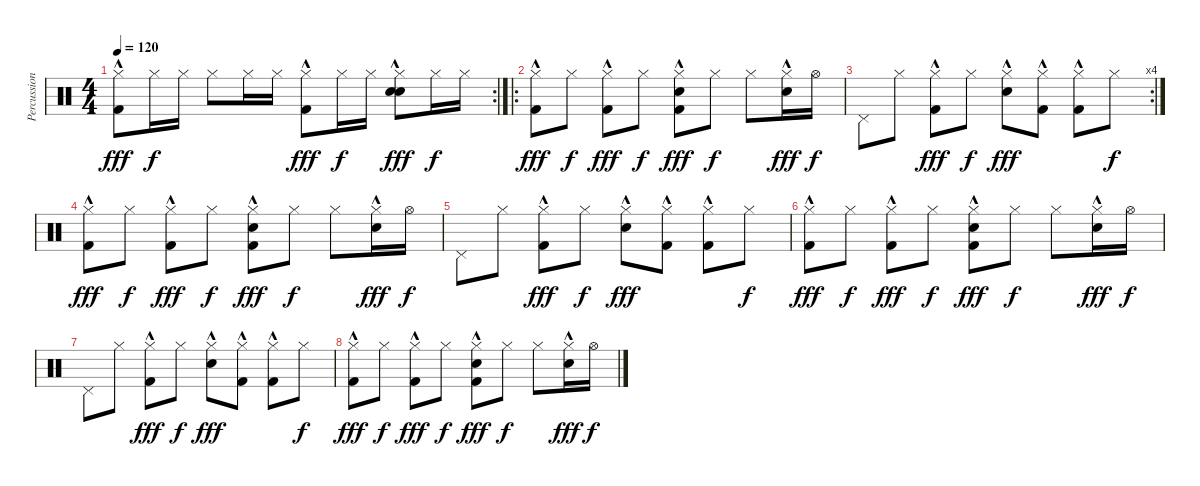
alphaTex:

\track ("Percussion" "Percussion") {mute instrument percussion}
\staff {score}
\articulation defaults
\rc 2
\ts (4 4)
\tempo 120
\clef neutral
\ks c
("Hi-Hat (closed)" "Kick (hit) 2"{hac}).8{dy fff} "Hi-Hat (closed)".16{dy f} "Hi-Hat (closed)".16 "Hi-Hat (closed)".8 "Hi-Hat (closed)".16 "Hi-Hat (closed)".16 ("Hi-Hat (closed)" "Kick (hit) 2"{hac}).8{dy fff} "Hi-Hat (closed)".16{dy f} "Hi-Hat (closed)".16 ("Hi-Hat (closed)" "Hand Clap (hit)"{hac} "Snare (hit) 2").8{dy fff} "Hi-Hat (closed)".16{dy f} "Hi-Hat (closed)".16 |
\ro
("Hi-Hat (closed)" "Kick (hit) 2"{hac}).8{dy fff} "Hi-Hat (closed)".8{dy f} ("Hi-Hat (closed)" "Kick (hit) 2"{hac}).8{dy fff} "Hi-Hat (closed)".8{dy f} ("Hi-Hat (closed)" "Snare (hit) 2"{hac} "Kick (hit) 2"{hac}).8{dy fff} "Hi-Hat (closed)".8{dy f} "Hi-Hat (closed)".8 ("Hi-Hat (closed)" "Snare (hit) 2"{hac}).16{dy fff} "Hi-Hat (open)".16{dy f} |
\rc 4 "Pedal Hi-Hat (hit)".8 "Hi-Hat (closed)".8
("Hi-Hat (closed)" "Kick (hit) 2"{hac}).8{dy fff} "Hi-Hat (closed)".8{dy f} ("Hi-Hat (closed)" "Snare (hit) 2"{hac}).8{dy fff} ("Hi-Hat (closed)" "Kick (hit) 2"{hac}).8 ("Hi-Hat (closed)" "Kick (hit) 2"{hac}).8 "Hi-Hat (closed)".8{dy f} |
("Hi-Hat (closed)" "Kick (hit) 2"{hac}).8{dy fff} "Hi-Hat (closed)".8{dy f} ("Hi-Hat (closed)" "Kick (hit) 2"{hac}).8{dy fff} "Hi-Hat (closed)".8{dy f} ("Hi-Hat (closed)" "Snare (hit) 2"{hac} "Kick (hit) 2"{hac}).8{dy fff} "Hi-Hat (closed)".8{dy f} "Hi-Hat (closed)".8 ("Hi-Hat (closed)" "Snare (hit) 2"{hac}).16{dy fff} "Hi-Hat (open)".16{dy f} |
"Pedal Hi-Hat (hit)".8 "Hi-Hat (closed)".8 ("Hi-Hat (closed)" "Kick (hit) 2"{hac}).8{dy fff} "Hi-Hat (closed)".8{dy f} ("Hi-Hat (closed)" "Snare (hit) 2"{hac}).8{dy fff} ("Hi-Hat (closed)" "Kick (hit) 2"{hac}).8 ("Hi-Hat (closed)" "Kick (hit) 2"{hac}).8 "Hi-Hat (closed)".8{dy f} |
("Hi-Hat (closed)" "Kick (hit) 2"{hac}).8{dy fff} "Hi-Hat (closed)".8{dy f} ("Hi-Hat (closed)" "Kick (hit) 2"{hac}).8{dy fff} "Hi-Hat (closed)".8{dy f} ("Hi-Hat (closed)" "Snare (hit) 2"{hac} "Kick (hit) 2"{hac}).8{dy fff} "Hi-Hat (closed)".8{dy f} "Hi-Hat (closed)".8 ("Hi-Hat (closed)" "Snare (hit) 2"{hac}).16{dy fff} "Hi-Hat (open)".16{dy f} |
"Pedal Hi-Hat (hit)".8 "Hi-Hat (closed)".8 ("Hi-Hat (closed)" "Kick (hit) 2"{hac}).8{dy fff} "Hi-Hat (closed)".8{dy f} ("Hi-Hat (closed)" "Snare (hit) 2"{hac}).8{dy fff} ("Hi-Hat (closed)" "Kick (hit) 2"{hac}).8 ("Hi-Hat (closed)" "Kick (hit) 2"{hac}).8 "Hi-Hat (closed)".8{dy f} |
("Hi-Hat (closed)" "Kick (hit) 2"{hac}).8{dy fff volume 0} "Hi-Hat (closed)".8{dy f} ("Hi-Hat (closed)" "Kick (hit) 2"{hac}).8{dy fff} "Hi-Hat (closed)".8{dy f} ("Hi-Hat (closed)" "Snare (hit) 2"{hac} "Kick (hit) 2"{hac}).8{dy fff} "Hi-Hat (closed)".8{dy f} "Hi-Hat (closed)".8 ("Hi-Hat (closed)" "Snare (hit) 2"{hac}).16{dy fff} "Hi-Hat (open)".16{dy f}
